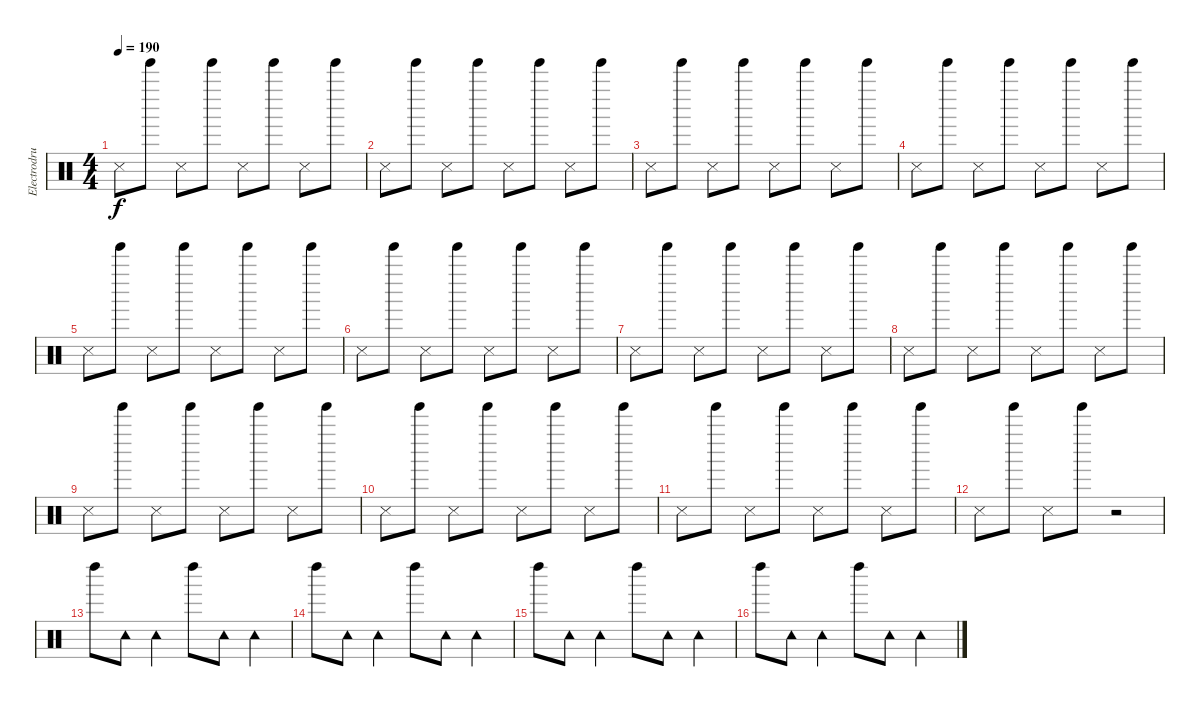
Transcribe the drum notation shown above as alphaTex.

\track ("Electrodrums2" "Electrodru") {instrument percussion}
\staff {score}
\articulation defaults
\ts (4 4)
\tempo 190
\clef neutral
\ks c "Snare (side stick) 3".8{dy f} "Tinkle Bell (hit)".8 "Snare (side stick) 3".8 "Tinkle Bell (hit)".8 "Snare (side stick) 3".8 "Tinkle Bell (hit)".8 "Snare (side stick) 3".8 "Tinkle Bell (hit)".8
|
"Snare (side stick) 3".8 "Tinkle Bell (hit)".8 "Snare (side stick) 3".8 "Tinkle Bell (hit)".8 "Snare (side stick) 3".8 "Tinkle Bell (hit)".8 "Snare (side stick) 3".8 "Tinkle Bell (hit)".8 |
"Snare (side stick) 3".8 "Tinkle Bell (hit)".8 "Snare (side stick) 3".8 "Tinkle Bell (hit)".8 "Snare (side stick) 3".8 "Tinkle Bell (hit)".8 "Snare (side stick) 3".8 "Tinkle Bell (hit)".8 |
"Snare (side stick) 3".8 "Tinkle Bell (hit)".8 "Snare (side stick) 3".8 "Tinkle Bell (hit)".8 "Snare (side stick) 3".8 "Tinkle Bell (hit)".8 "Snare (side stick) 3".8 "Tinkle Bell (hit)".8 |
"Snare (side stick) 3".8 "Tinkle Bell (hit)".8 "Snare (side stick) 3".8 "Tinkle Bell (hit)".8 "Snare (side stick) 3".8 "Tinkle Bell (hit)".8 "Snare (side stick) 3".8 "Tinkle Bell (hit)".8 |
"Snare (side stick) 3".8 "Tinkle Bell (hit)".8 "Snare (side stick) 3".8 "Tinkle Bell (hit)".8 "Snare (side stick) 3".8 "Tinkle Bell (hit)".8 "Snare (side stick) 3".8 "Tinkle Bell (hit)".8 |
"Snare (side stick) 3".8 "Tinkle Bell (hit)".8 "Snare (side stick) 3".8 "Tinkle Bell (hit)".8 "Snare (side stick) 3".8 "Tinkle Bell (hit)".8 "Snare (side stick) 3".8 "Tinkle Bell (hit)".8 |
"Snare (side stick) 3".8 "Tinkle Bell (hit)".8 "Snare (side stick) 3".8 "Tinkle Bell (hit)".8 "Snare (side stick) 3".8 "Tinkle Bell (hit)".8 "Snare (side stick) 3".8 "Tinkle Bell (hit)".8 |
"Snare (side stick) 3".8 "Tinkle Bell (hit)".8 "Snare (side stick) 3".8 "Tinkle Bell (hit)".8 "Snare (side stick) 3".8 "Tinkle Bell (hit)".8 "Snare (side stick) 3".8 "Tinkle Bell (hit)".8 |
"Snare (side stick) 3".8 "Tinkle Bell (hit)".8 "Snare (side stick) 3".8 "Tinkle Bell (hit)".8 "Snare (side stick) 3".8 "Tinkle Bell (hit)".8 "Snare (side stick) 3".8 "Tinkle Bell (hit)".8 |
"Snare (side stick) 3".8 "Tinkle Bell (hit)".8 "Snare (side stick) 3".8 "Tinkle Bell (hit)".8 "Snare (side stick) 3".8 "Tinkle Bell (hit)".8 "Snare (side stick) 3".8 "Tinkle Bell (hit)".8 |
"Snare (side stick) 3".8 "Tinkle Bell (hit)".8 "Snare (side stick) 3".8 "Tinkle Bell (hit)".8 r.2 |
"Left Maraca (hit)".8 "Tambourine (hit)".8 "Tambourine (hit)".4 "Left Maraca (hit)".8 "Tambourine (hit)".8 "Tambourine (hit)".4 |
"Left Maraca (hit)".8 "Tambourine (hit)".8 "Tambourine (hit)".4 "Left Maraca (hit)".8 "Tambourine (hit)".8 "Tambourine (hit)".4 |
"Left Maraca (hit)".8 "Tambourine (hit)".8 "Tambourine (hit)".4 "Left Maraca (hit)".8 "Tambourine (hit)".8 "Tambourine (hit)".4 |
"Left Maraca (hit)".8 "Tambourine (hit)".8 "Tambourine (hit)".4 "Left Maraca (hit)".8 "Tambourine (hit)".8 "Tambourine (hit)".4
